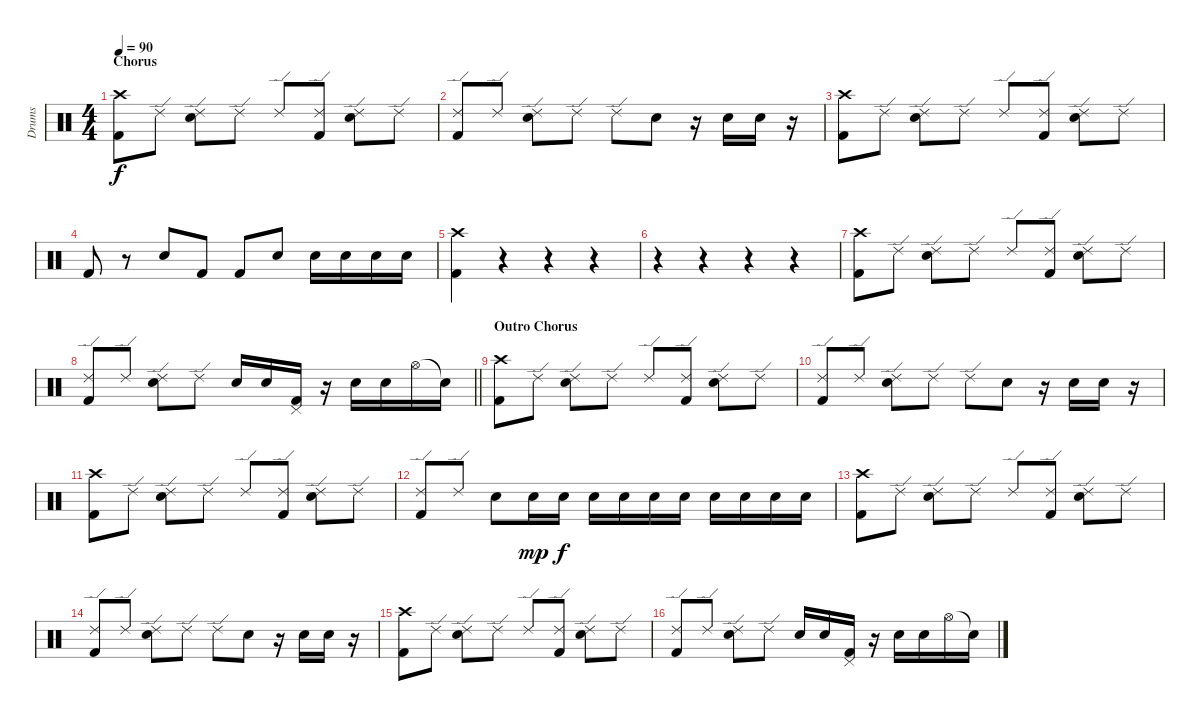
\track ("Drums" "Drums") {instrument percussion}
\staff {score}
\articulation defaults
\ts (4 4)
\section ("" "Chorus")
\tempo 90
\clef neutral
\ks c
("Crash high (hit)" "Kick (hit) 2").8{dy f} "Ride (edge) 2".8 ("Ride (edge) 2" "Electric Snare (hit)").8 "Ride (edge) 2".8 "Ride (edge) 2".8 ("Ride (edge) 2" "Kick (hit) 2").8 ("Ride (edge) 2" "Electric Snare (hit)").8 "Ride (edge) 2".8 |
("Ride (edge) 2" "Kick (hit) 2").8 "Ride (edge) 2".8 ("Ride (edge) 2" "Electric Snare (hit)").8 "Ride (edge) 2".8 "Ride (edge) 2".8 "Electric Snare (hit)".8 r.16 "Electric Snare (hit)".16 "Electric Snare (hit)".16 r.16 |
("Crash high (hit)" "Kick (hit) 2").8 "Ride (edge) 2".8 ("Ride (edge) 2" "Electric Snare (hit)").8 "Ride (edge) 2".8 "Ride (edge) 2".8 ("Ride (edge) 2" "Kick (hit) 2").8 ("Ride (edge) 2" "Electric Snare (hit)").8 "Ride (edge) 2".8 |
"Kick (hit) 2".8 r.8 "Electric Snare (hit)".8 "Kick (hit) 2".8 "Kick (hit) 2".8 "Electric Snare (hit)".8 "Electric Snare (hit)".16 "Electric Snare (hit)".16 "Electric Snare (hit)".16 "Electric Snare (hit)".16 |
("Crash high (hit)" "Kick (hit) 2").4 r.4 r.4 r.4 |
r.4 r.4 r.4 r.4 |
("Crash high (hit)" "Kick (hit) 2").8 "Ride (edge) 2".8 ("Ride (edge) 2" "Electric Snare (hit)").8 "Ride (edge) 2".8 "Ride (edge) 2".8 ("Ride (edge) 2" "Kick (hit) 2").8 ("Ride (edge) 2" "Electric Snare (hit)").8 "Ride (edge) 2".8 |
\barLineRight lightlight
("Ride (edge) 2" "Kick (hit) 2").8 "Ride (edge) 2".8 ("Ride (edge) 2" "Electric Snare (hit)").8 "Ride (edge) 2".8 "Electric Snare (hit)".16 "Electric Snare (hit)".16 ("Pedal Hi-Hat (hit)" "Kick (hit) 2").16 r.16 "Electric Snare (hit)".16 "Electric Snare (hit)".16 "Hi-Hat (open)".16 "Snare (hit)"{t}.16 |
\section ("" "Outro Chorus")
("Crash high (hit)" "Kick (hit) 2").8 "Ride (edge) 2".8 ("Ride (edge) 2" "Electric Snare (hit)").8 "Ride (edge) 2".8 "Ride (edge) 2".8 ("Ride (edge) 2" "Kick (hit) 2").8 ("Ride (edge) 2" "Electric Snare (hit)").8 "Ride (edge) 2".8 |
("Ride (edge) 2" "Kick (hit) 2").8 "Ride (edge) 2".8 ("Ride (edge) 2" "Electric Snare (hit)").8 "Ride (edge) 2".8 "Ride (edge) 2".8 "Electric Snare (hit)".8 r.16 "Electric Snare (hit)".16 "Electric Snare (hit)".16 r.16 |
("Crash high (hit)" "Kick (hit) 2").8 "Ride (edge) 2".8 ("Ride (edge) 2" "Electric Snare (hit)").8 "Ride (edge) 2".8 "Ride (edge) 2".8 ("Ride (edge) 2" "Kick (hit) 2").8 ("Ride (edge) 2" "Electric Snare (hit)").8 "Ride (edge) 2".8 |
("Ride (edge) 2" "Kick (hit) 2").8 "Ride (edge) 2".8 "Electric Snare (hit)".8 "Electric Snare (hit)".16{dy mp} "Electric Snare (hit)".16{dy f} "Electric Snare (hit)".16 "Electric Snare (hit)".16 "Electric Snare (hit)".16 "Electric Snare (hit)".16 "Electric Snare (hit)".16 "Electric Snare (hit)".16 "Electric Snare (hit)".16 "Electric Snare (hit)".16 |
("Crash high (hit)" "Kick (hit) 2").8 "Ride (edge) 2".8 ("Ride (edge) 2" "Electric Snare (hit)").8 "Ride (edge) 2".8 "Ride (edge) 2".8 ("Ride (edge) 2" "Kick (hit) 2").8 ("Ride (edge) 2" "Electric Snare (hit)").8 "Ride (edge) 2".8 |
("Ride (edge) 2" "Kick (hit) 2").8 "Ride (edge) 2".8 ("Ride (edge) 2" "Electric Snare (hit)").8 "Ride (edge) 2".8 "Ride (edge) 2".8 "Electric Snare (hit)".8 r.16 "Electric Snare (hit)".16 "Electric Snare (hit)".16 r.16 |
("Crash high (hit)" "Kick (hit) 2").8 "Ride (edge) 2".8 ("Ride (edge) 2" "Electric Snare (hit)").8 "Ride (edge) 2".8 "Ride (edge) 2".8 ("Ride (edge) 2" "Kick (hit) 2").8 ("Ride (edge) 2" "Electric Snare (hit)").8 "Ride (edge) 2".8 |
("Ride (edge) 2" "Kick (hit) 2").8 "Ride (edge) 2".8 ("Ride (edge) 2" "Electric Snare (hit)").8 "Ride (edge) 2".8 "Electric Snare (hit)".16 "Electric Snare (hit)".16 ("Pedal Hi-Hat (hit)" "Kick (hit) 2").16 r.16 "Electric Snare (hit)".16 "Electric Snare (hit)".16 "Hi-Hat (open)".16 "Snare (hit)"{t}.16
